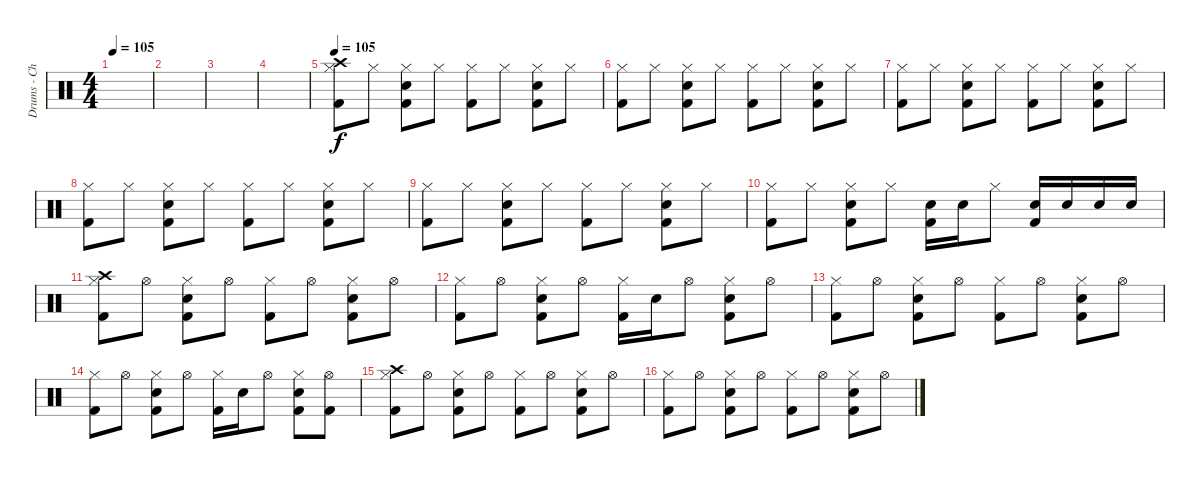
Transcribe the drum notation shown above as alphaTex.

\track ("Drums - Christoph Schneider" "Drums - Ch") {instrument percussion}
\staff {score}
\articulation defaults
\ts (4 4)
\tempo 105
\tempo 125
\tempo 105
\clef neutral
\ks c
|
|
|
|
\tempo 105
("Crash high (hit)" "Hi-Hat (closed)" "Kick (hit) 2").8 "Hi-Hat (closed)".8 ("Hi-Hat (closed)" "Snare (hit) 2" "Kick (hit) 2").8 "Hi-Hat (closed)".8 ("Hi-Hat (closed)" "Kick (hit) 2").8 "Hi-Hat (closed)".8 ("Hi-Hat (closed)" "Snare (hit) 2" "Kick (hit) 2").8 "Hi-Hat (closed)".8 |
("Hi-Hat (closed)" "Kick (hit) 2").8 "Hi-Hat (closed)".8 ("Hi-Hat (closed)" "Snare (hit) 2" "Kick (hit) 2").8 "Hi-Hat (closed)".8 ("Hi-Hat (closed)" "Kick (hit) 2").8 "Hi-Hat (closed)".8 ("Hi-Hat (closed)" "Snare (hit) 2" "Kick (hit) 2").8 "Hi-Hat (closed)".8 |
("Hi-Hat (closed)" "Kick (hit) 2").8 "Hi-Hat (closed)".8 ("Hi-Hat (closed)" "Snare (hit) 2" "Kick (hit) 2").8 "Hi-Hat (closed)".8 ("Hi-Hat (closed)" "Kick (hit) 2").8 "Hi-Hat (closed)".8 ("Hi-Hat (closed)" "Snare (hit) 2" "Kick (hit) 2").8 "Hi-Hat (closed)".8 |
("Hi-Hat (closed)" "Kick (hit) 2").8 "Hi-Hat (closed)".8 ("Hi-Hat (closed)" "Snare (hit) 2" "Kick (hit) 2").8 "Hi-Hat (closed)".8 ("Hi-Hat (closed)" "Kick (hit) 2").8 "Hi-Hat (closed)".8 ("Hi-Hat (closed)" "Snare (hit) 2" "Kick (hit) 2").8 "Hi-Hat (closed)".8 |
("Hi-Hat (closed)" "Kick (hit) 2").8 "Hi-Hat (closed)".8 ("Hi-Hat (closed)" "Snare (hit) 2" "Kick (hit) 2").8 "Hi-Hat (closed)".8 ("Hi-Hat (closed)" "Kick (hit) 2").8 "Hi-Hat (closed)".8 ("Hi-Hat (closed)" "Snare (hit) 2" "Kick (hit) 2").8 "Hi-Hat (closed)".8 |
("Hi-Hat (closed)" "Kick (hit) 2").8 "Hi-Hat (closed)".8 ("Hi-Hat (closed)" "Snare (hit) 2" "Kick (hit) 2").8 "Hi-Hat (closed)".8 ("Snare (hit) 2" "Kick (hit) 2").16 "Snare (hit) 2".16 "Hi-Hat (closed)".8 ("Snare (hit) 2" "Kick (hit) 2").16 "Snare (hit) 2".16 "Snare (hit) 2".16 "Snare (hit) 2".16 |
("Crash high (hit)" "Hi-Hat (closed)" "Kick (hit) 2").8 "Hi-Hat (open)".8 ("Hi-Hat (closed)" "Snare (hit) 2" "Kick (hit) 2").8 "Hi-Hat (open)".8 ("Hi-Hat (closed)" "Kick (hit) 2").8 "Hi-Hat (open)".8 ("Hi-Hat (closed)" "Snare (hit) 2" "Kick (hit) 2").8 "Hi-Hat (open)".8 |
("Hi-Hat (closed)" "Kick (hit) 2").8 "Hi-Hat (open)".8 ("Hi-Hat (closed)" "Snare (hit) 2" "Kick (hit) 2").8 "Hi-Hat (open)".8 ("Hi-Hat (closed)" "Kick (hit) 2").16 "Snare (hit) 2".16 "Hi-Hat (open)".8 ("Hi-Hat (closed)" "Snare (hit) 2" "Kick (hit) 2").8 "Hi-Hat (open)".8 |
("Hi-Hat (closed)" "Kick (hit) 2").8 "Hi-Hat (open)".8 ("Hi-Hat (closed)" "Snare (hit) 2" "Kick (hit) 2").8 "Hi-Hat (open)".8 ("Hi-Hat (closed)" "Kick (hit) 2").8 "Hi-Hat (open)".8 ("Hi-Hat (closed)" "Snare (hit) 2" "Kick (hit) 2").8 "Hi-Hat (open)".8 |
("Hi-Hat (closed)" "Kick (hit) 2").8 "Hi-Hat (open)".8 ("Hi-Hat (closed)" "Snare (hit) 2" "Kick (hit) 2").8 "Hi-Hat (open)".8 ("Hi-Hat (closed)" "Kick (hit) 2").16 "Snare (hit) 2".16 "Hi-Hat (open)".8 ("Hi-Hat (closed)" "Snare (hit) 2" "Kick (hit) 2").8 ("Hi-Hat (open)" "Kick (hit) 2").8 |
("Crash high (hit)" "Hi-Hat (closed)" "Kick (hit) 2").8 "Hi-Hat (open)".8 ("Hi-Hat (closed)" "Snare (hit) 2" "Kick (hit) 2").8 "Hi-Hat (open)".8 ("Hi-Hat (closed)" "Kick (hit) 2").8 "Hi-Hat (open)".8 ("Hi-Hat (closed)" "Snare (hit) 2" "Kick (hit) 2").8 "Hi-Hat (open)".8 |
("Hi-Hat (closed)" "Kick (hit) 2").8 "Hi-Hat (open)".8 ("Hi-Hat (closed)" "Snare (hit) 2" "Kick (hit) 2").8 "Hi-Hat (open)".8 ("Hi-Hat (closed)" "Kick (hit) 2").8 "Hi-Hat (open)".8 ("Hi-Hat (closed)" "Snare (hit) 2" "Kick (hit) 2").8 "Hi-Hat (open)".8
